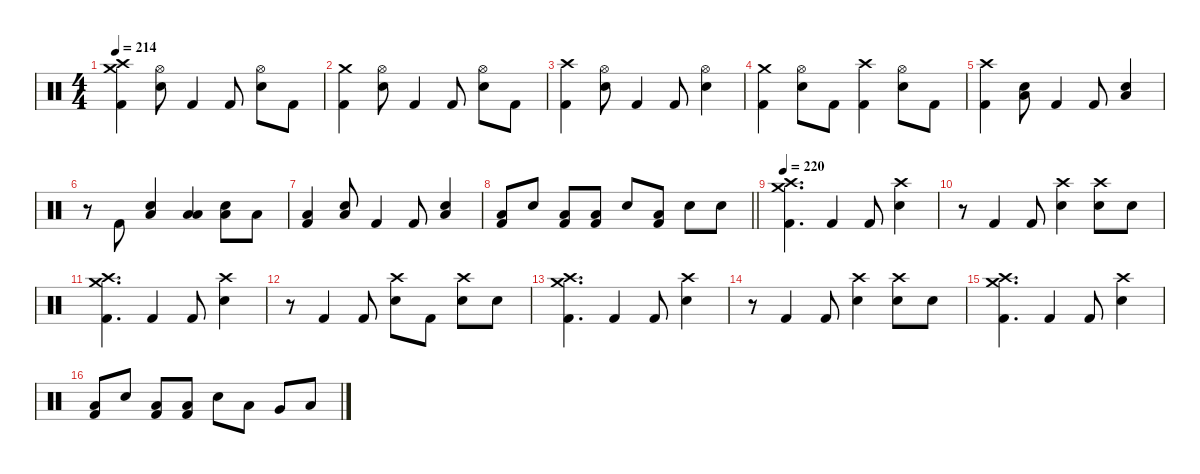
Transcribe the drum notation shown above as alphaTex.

\defaultSystemsLayout 4
\hideDynamics
\bracketExtendMode nobrackets
\singleTrackTrackNamePolicy hidden
\multiTrackTrackNamePolicy hidden
\firstSystemTrackNameMode fullname
\otherSystemsTrackNameOrientation horizontal
\track ("Drums" "drm.") {defaultSystemsLayout 4 instrument percussion}
\staff {score}
\articulation defaults
\ts (4 4)
\tempo 214
\clef neutral
\ks c
("Crash high (hit)" "Crash medium (hit)" "Kick (hit) 2").4{dy f beam Down} ("Hi-Hat (open)" "Snare (hit) 2").8{beam Down} "Kick (hit) 2".4{beam Up} "Kick (hit) 2".8{beam Up} ("Hi-Hat (open)" "Snare (hit) 2").8{beam Down} "Kick (hit) 2".8{dy mp beam Down} |
("Crash medium (hit)" "Kick (hit) 2").4{dy f beam Down} ("Hi-Hat (open)" "Snare (hit) 2").8{beam Down} "Kick (hit) 2".4{beam Up} "Kick (hit) 2".8{beam Up} ("Hi-Hat (open)" "Snare (hit) 2").8{beam Down} "Kick (hit) 2".8{dy mp beam Down} |
("Crash high (hit)" "Kick (hit) 2").4{dy f beam Down} ("Hi-Hat (open)" "Snare (hit) 2").8{beam Down} "Kick (hit) 2".4{beam Up} "Kick (hit) 2".8{beam Up} ("Hi-Hat (open)" "Snare (hit) 2").4{beam Down} |
("Crash medium (hit)" "Kick (hit) 2").4{beam Down} ("Hi-Hat (open)" "Snare (hit) 2").8{beam Down} "Kick (hit) 2".8{beam Down} ("Crash high (hit)" "Kick (hit) 2").4{beam Down} ("Hi-Hat (open)" "Snare (hit) 2").8{beam Down} "Kick (hit) 2".8{beam Down} |
("Crash high (hit)" "Kick (hit) 2").4{beam Down} ("Low Floor Tom (hit)" "Snare (hit) 2").8{beam Down} "Kick (hit) 2".4{beam Up} "Kick (hit) 2".8{beam Up} ("Low Floor Tom (hit)" "Snare (hit) 2").4{beam Up} |
r.8{beam Down} "Kick (hit) 2".8{beam Up} ("Low Floor Tom (hit)" "Snare (hit) 2").4{beam Up} ("Low Floor Tom (hit)" "Low Floor Tom (hit)").4{beam Up} ("Low Floor Tom (hit)" "Snare (hit) 2").8{beam Down} "Low Floor Tom (hit)".8{beam Down} |
("Low Floor Tom (hit)" "Kick (hit) 2").4{beam Up} ("Low Floor Tom (hit)" "Snare (hit) 2").8{beam Up} "Kick (hit) 2".4{beam Up} "Kick (hit) 2".8{beam Up} ("Low Floor Tom (hit)" "Snare (hit) 2").4{beam Up} |
\barLineRight lightlight
("Low Floor Tom (hit)" "Kick (hit) 2").8{beam Up} "Snare (hit) 2".8{beam Up} ("Low Floor Tom (hit)" "Kick (hit) 2").8{beam Up} ("Low Floor Tom (hit)" "Kick (hit) 2").8{beam Up} "Snare (hit) 2".8{beam Up} ("Low Floor Tom (hit)" "Kick (hit) 2").8{beam Up} "Snare (hit) 2".8{beam Down} "Snare (hit) 2".8{beam Down} |
\tempo 220
("Crash high (hit)" "Crash medium (hit)" "Kick (hit) 2").4{d beam Down} "Kick (hit) 2".4{beam Up} "Kick (hit) 2".8{beam Up} ("Crash high (hit)" "Snare (hit) 2").4{beam Down} |
r.8{beam Down} "Kick (hit) 2".4{beam Up} "Kick (hit) 2".8{beam Up} ("Crash high (hit)" "Snare (hit) 2").4{beam Down} ("Crash high (hit)" "Snare (hit) 2").8{beam Down} "Snare (hit) 2".8{beam Down} |
("Crash high (hit)" "Crash medium (hit)" "Kick (hit) 2").4{d beam Down} "Kick (hit) 2".4{beam Up} "Kick (hit) 2".8{beam Up} ("Crash high (hit)" "Snare (hit) 2").4{beam Down} |
r.8{beam Down} "Kick (hit) 2".4{beam Up} "Kick (hit) 2".8{beam Up} ("Crash high (hit)" "Snare (hit) 2").8{beam Down} "Kick (hit) 2".8{beam Down} ("Crash high (hit)" "Snare (hit) 2").8{beam Down} "Snare (hit) 2".8{beam Down} |
("Crash high (hit)" "Crash medium (hit)" "Kick (hit) 2").4{d beam Down} "Kick (hit) 2".4{beam Up} "Kick (hit) 2".8{beam Up} ("Crash high (hit)" "Snare (hit) 2").4{beam Down} |
r.8{beam Down} "Kick (hit) 2".4{beam Up} "Kick (hit) 2".8{beam Up} ("Crash high (hit)" "Snare (hit) 2").4{beam Down} ("Crash high (hit)" "Snare (hit) 2").8{beam Down} "Snare (hit) 2".8{beam Down} |
("Crash high (hit)" "Crash medium (hit)" "Kick (hit) 2").4{d beam Down} "Kick (hit) 2".4{beam Up} "Kick (hit) 2".8{beam Up} ("Crash high (hit)" "Snare (hit) 2").4{beam Down} |
("Low Floor Tom (hit)" "Kick (hit) 2").8{beam Up} "Snare (hit) 2".8{beam Up} ("Low Floor Tom (hit)" "Kick (hit) 2").8{beam Up} ("Low Floor Tom (hit)" "Kick (hit) 2").8{beam Up} "Snare (hit) 2".8{beam Down} "Low Tom (hit)".8{beam Down} "Very Low Tom (hit)".8{beam Up} "Low Floor Tom (hit)".8{beam Up}
